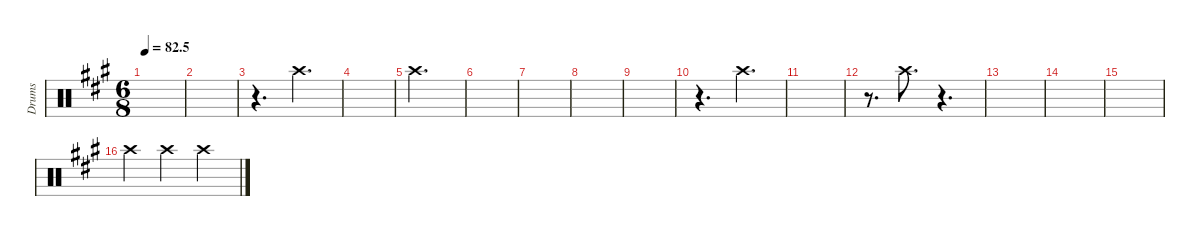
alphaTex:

\defaultSystemsLayout 4
\hideDynamics
\bracketExtendMode nobrackets
\otherSystemsTrackNameOrientation horizontal
\track ("Left crash" "Drums") {instrument percussion}
\staff {score}
\articulation defaults
\ts (6 8)
\tempo
82.5
\accidentals auto
\clef neutral
\ottava regular
\simile none
\scale
0.333333
\ks a
|
\scale
0.333333 |
\scale
0.333333 r.4{d} "Crash high (hit)"{acc forcenatural}.4{d} |
\scale
0.333333 |
\scale
0.333333 "Crash high (hit)"{acc forcenatural}.2{d} |
\scale
0.333333 |
\scale
0.333333 |
\scale
0.333333 |
\scale
0.333333 |
\scale
0.333333 r.4{d} "Crash high (hit)"{acc forcenatural}.4{d} |
\scale
0.333333 |
\scale
0.333333 r.8{d} "Crash high (hit)"{acc forcenatural}.8{d} r.4{d} |
\scale
0.333333 |
\scale
0.333333 |
\scale
0.333333 |
\scale
0.333333 "Crash high (hit)"{acc forcenatural}.4 "Crash high (hit)"{acc forcenatural}.4 "Crash high (hit)"{acc forcenatural}.4
